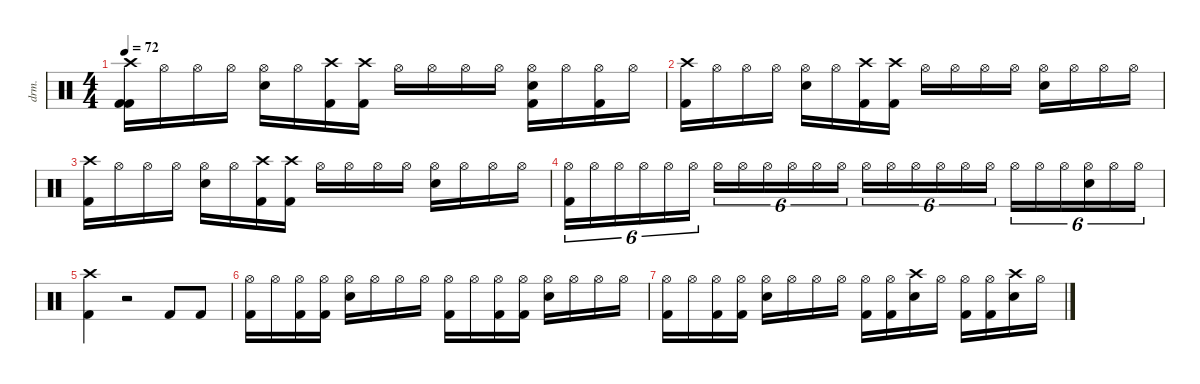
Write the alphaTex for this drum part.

\defaultSystemsLayout 4
\hideDynamics
\bracketExtendMode nobrackets
\otherSystemsTrackNameOrientation horizontal
\track ("Drums" "drm.") {instrument percussion}
\staff {score}
\articulation defaults
\ts (4 4)
\beaming (8 2 2 2 2)
\tempo 72
\clef neutral
\ks c
("Kick (hit) 2" "Kick (hit) 2" "Crash high (hit)").16{dy fff beam Down} "Hi-Hat (open)".16{dy mf beam Down} "Hi-Hat (open)".16{dy ff beam Down} "Hi-Hat (open)".16{dy mf beam Down} ("Snare (hit) 2" "Hi-Hat (open)").16{dy fff beam Down} "Hi-Hat (open)".16{dy f beam Down} ("Kick (hit) 2" "Crash high (hit)").16{dy fff beam Down} ("Kick (hit) 2" "Crash high (hit)").16{beam Down} "Hi-Hat (open)".16{beam Down} "Hi-Hat (open)".16{dy mf beam Down} "Hi-Hat (open)".16{dy ff beam Down} "Hi-Hat (open)".16{beam Down} ("Kick (hit) 2" "Snare (hit) 2" "Hi-Hat (open)").16{dy f beam Down} "Hi-Hat (open)".16{dy mf beam Down} ("Hi-Hat (open)" "Kick (hit) 2").16{dy f beam Down} "Hi-Hat (open)".16{beam Down} |
("Kick (hit) 2" "Crash high (hit)").16{dy fff beam Down} "Hi-Hat (open)".16{dy mf beam Down} "Hi-Hat (open)".16{dy f beam Down} "Hi-Hat (open)".16{beam Down} ("Snare (hit) 2" "Hi-Hat (open)").16{dy fff beam Down} "Hi-Hat (open)".16{dy mf beam Down} ("Kick (hit) 2" "Crash high (hit)").16{dy fff beam Down} ("Kick (hit) 2" "Crash high (hit)").16{beam Down} "Hi-Hat (open)".16{dy ff beam Down} "Hi-Hat (open)".16{dy mf beam Down} "Hi-Hat (open)".16{dy ff beam Down} "Hi-Hat (open)".16{dy f beam Down} ("Snare (hit) 2" "Hi-Hat (open)").16{dy fff beam Down} "Hi-Hat (open)".16{dy f beam Down} "Hi-Hat (open)".16{beam Down} "Hi-Hat (open)".16{dy mf beam Down} |
("Crash high (hit)" "Kick (hit) 2").16{dy ff beam Down} "Hi-Hat (open)".16{beam Down} "Hi-Hat (open)".16{beam Down} "Hi-Hat (open)".16{beam Down} ("Snare (hit) 2" "Hi-Hat (open)").16{dy fff beam Down} "Hi-Hat (open)".16{dy f beam Down} ("Kick (hit) 2" "Crash high (hit)").16{dy fff beam Down} ("Crash high (hit)" "Kick (hit) 2").16{dy mf beam Down} "Hi-Hat (open)".16{dy ff beam Down} "Hi-Hat (open)".16{dy mf beam Down} "Hi-Hat (open)".16{dy ff beam Down} "Hi-Hat (open)".16{dy f beam Down} ("Hi-Hat (open)" "Snare (hit) 2").16{dy ff beam Down} "Hi-Hat (open)".16{dy mf beam Down} "Hi-Hat (open)".16{dy ff beam Down} "Hi-Hat (open)".16{dy f beam Down} |
("Kick (hit) 2" "Hi-Hat (open)").16{tu (6 4) dy fff beam Down} "Hi-Hat (open)".16{tu (6 4) beam Down} "Hi-Hat (open)".16{tu (6 4) dy ff beam Down} "Hi-Hat (open)".16{tu (6 4) dy fff beam Down} "Hi-Hat (open)".16{tu (6 4) beam Down} "Hi-Hat (open)".16{tu (6 4) dy ff beam Down} "Hi-Hat (open)".16{tu (6 4) dy fff beam Down} "Hi-Hat (open)".16{tu (6 4) beam Down} "Hi-Hat (open)".16{tu (6 4) dy ff beam Down} "Hi-Hat (open)".16{tu (6 4) dy fff beam Down} "Hi-Hat (open)".16{tu (6 4) beam Down} "Hi-Hat (open)".16{tu (6 4) dy ff beam Down} "Hi-Hat (open)".16{tu (6 4) dy fff beam Down} "Hi-Hat (open)".16{tu (6 4) beam Down} "Hi-Hat (open)".16{tu (6 4) dy ff beam Down} "Hi-Hat (open)".16{tu (6 4) dy fff beam Down} "Hi-Hat (open)".16{tu (6 4) beam Down} "Hi-Hat (open)".16{tu (6 4) dy ff beam Down} "Hi-Hat (open)".16{tu (6 4) dy fff beam Down} "Hi-Hat (open)".16{tu (6 4) beam Down} "Hi-Hat (open)".16{tu (6 4) dy ff beam Down} ("Hi-Hat (open)" "Snare (hit) 2").16{tu (6 4) dy fff beam Down} "Hi-Hat (open)".16{tu (6 4) beam Down} "Hi-Hat (open)".16{tu (6 4) dy ff beam Down} |
("Kick (hit) 2" "Crash high (hit)").4{dy fff} r.2 "Kick (hit) 2".8{dy f} "Kick (hit) 2".8 |
("Kick (hit) 2" "Hi-Hat (open)").16{dy fff} "Hi-Hat (open)".16{dy mf} ("Kick (hit) 2" "Hi-Hat (open)").16{dy fff} ("Kick (hit) 2" "Hi-Hat (open)").16 ("Snare (hit) 2" "Hi-Hat (open)").16 "Hi-Hat (open)".16{dy mf} "Hi-Hat (open)".16{dy fff} "Hi-Hat (open)".16{dy mf} ("Kick (hit) 2" "Hi-Hat (open)").16{dy fff} "Hi-Hat (open)".16{dy mf} ("Kick (hit) 2" "Hi-Hat (open)").16{dy fff} ("Kick (hit) 2" "Hi-Hat (open)").16 ("Snare (hit) 2" "Hi-Hat (open)").16 "Hi-Hat (open)".16{dy f} "Hi-Hat (open)".16 "Hi-Hat (open)".16{dy mf} |
("Kick (hit) 2" "Hi-Hat (open)").16{dy fff} "Hi-Hat (open)".16{dy mf} ("Kick (hit) 2" "Hi-Hat (open)").16{dy fff} ("Kick (hit) 2" "Hi-Hat (open)").16{dy ff} ("Snare (hit) 2" "Hi-Hat (open)").16{dy fff} "Hi-Hat (open)".16{dy mf} "Hi-Hat (open)".16{dy fff} "Hi-Hat (open)".16{dy mf} ("Kick (hit) 2" "Hi-Hat (open)").16{dy fff} ("Kick (hit) 2" "Hi-Hat (open)").16 ("Snare (hit) 2" "Crash high (hit)").16 "Hi-Hat (open)".16{dy f} ("Kick (hit) 2" "Hi-Hat (open)").16{dy fff} ("Kick (hit) 2" "Hi-Hat (open)").16{dy ff} ("Snare (hit) 2" "Crash high (hit)").16{dy fff} "Hi-Hat (open)".16{dy mf}
